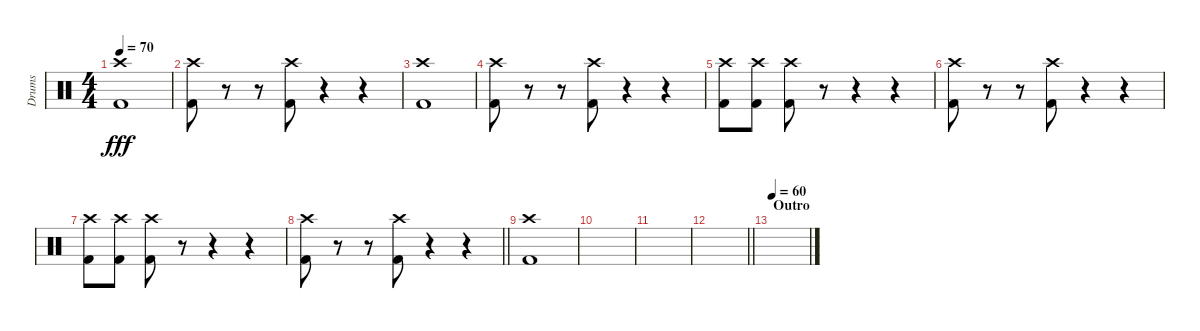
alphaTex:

\track ("Drums" "Drums") {instrument percussion}
\staff {score}
\articulation defaults
\ts (4 4)
\tempo 70
\clef neutral
\ks c
("Crash high (hit)" "Kick (hit) 2").1{dy fff} |
("Crash high (hit)" "Kick (hit) 2").8 r.8 r.8 ("Crash high (hit)" "Kick (hit) 2").8 r.4 r.4 |
("Crash high (hit)" "Kick (hit) 2").1 |
("Crash high (hit)" "Kick (hit) 2").8 r.8 r.8 ("Crash high (hit)" "Kick (hit) 2").8 r.4 r.4 |
("Crash high (hit)" "Kick (hit) 2").8 ("Crash high (hit)" "Kick (hit) 2").8 ("Crash high (hit)" "Kick (hit) 2").8 r.8 r.4 r.4 |
("Crash high (hit)" "Kick (hit) 2").8 r.8 r.8 ("Crash high (hit)" "Kick (hit) 2").8 r.4 r.4 |
("Crash high (hit)" "Kick (hit) 2").8 ("Crash high (hit)" "Kick (hit) 2").8 ("Crash high (hit)" "Kick (hit) 2").8 r.8 r.4 r.4 |
\barLineRight lightlight
("Crash high (hit)" "Kick (hit) 2").8 r.8 r.8 ("Crash high (hit)" "Kick (hit) 2").8 r.4 r.4 |
("Crash high (hit)" "Kick (hit) 2").1 |
|
|
\barLineRight lightlight
|
\section ("" "Outro")
\tempo 60
